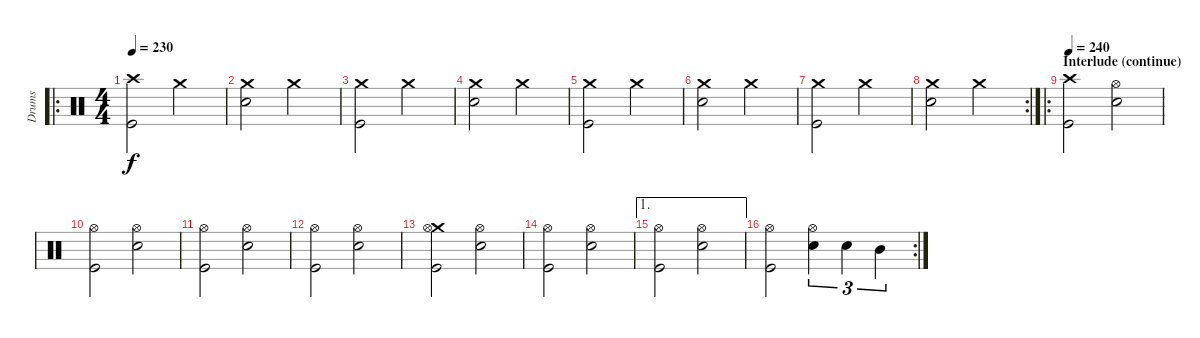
\track ("Drums" "Drums") {instrument percussion}
\staff {score}
\articulation defaults
\ro
\ts (4 4)
\tempo 230
\clef neutral
\ks c
("Crash high (hit)" "Kick (hit)").2{dy f} "Crash medium (hit)".2 |
("Crash medium (hit)" "Electric Snare (hit)").2 "Crash medium (hit)".2 |
("Crash medium (hit)" "Kick (hit)").2 "Crash medium (hit)".2 |
("Crash medium (hit)" "Electric Snare (hit)").2 "Crash medium (hit)".2 |
("Crash medium (hit)" "Kick (hit)").2 "Crash medium (hit)".2 |
("Crash medium (hit)" "Electric Snare (hit)").2 "Crash medium (hit)".2 |
("Crash medium (hit)" "Kick (hit)").2 "Crash medium (hit)".2 |
\rc 2
("Crash medium (hit)" "Electric Snare (hit)").2 "Crash medium (hit)".2 |
\ro
\section ("" "Interlude (continue)")
\tempo 240
("Crash high (hit)" "Kick (hit)").2 ("Hi-Hat (open)" "Electric Snare (hit)").2 |
("Hi-Hat (open)" "Kick (hit)").2 ("Hi-Hat (open)" "Electric Snare (hit)").2 |
("Hi-Hat (open)" "Kick (hit)").2 ("Hi-Hat (open)" "Electric Snare (hit)").2 |
("Hi-Hat (open)" "Kick (hit)").2 ("Hi-Hat (open)" "Electric Snare (hit)").2 |
("Crash medium (hit)" "Hi-Hat (open)" "Kick (hit)").2 ("Hi-Hat (open)" "Electric Snare (hit)").2 |
("Hi-Hat (open)" "Kick (hit)").2 ("Hi-Hat (open)" "Electric Snare (hit)").2 |
\ae 1
("Hi-Hat (open)" "Kick (hit)").2 ("Hi-Hat (open)" "Electric Snare (hit)").2 |
\rc 2
("Hi-Hat (open)" "Kick (hit)").2 ("Hi-Hat (open)" "Electric Snare (hit)").4{tu (3 2)} "Electric Snare (hit)".4{tu (3 2)} "Mid Tom (hit)".4{tu (3 2)}
